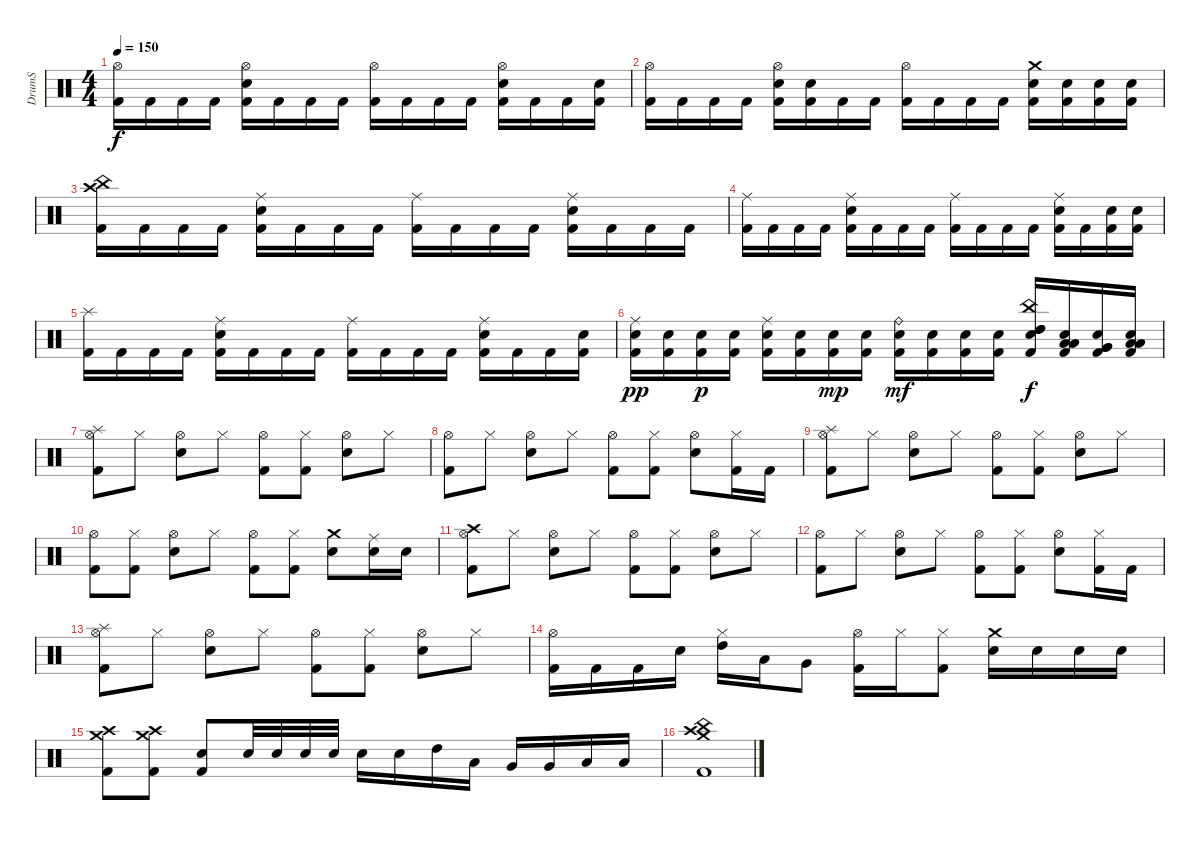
\track ("DrumS" "DrumS") {instrument percussion}
\staff {score}
\articulation defaults
\ts (4 4)
\tempo 150
\clef neutral
\ks c
("Hi-Hat (open)" "Kick (hit) 2").16{dy f} "Kick (hit) 2".16 "Kick (hit) 2".16 "Kick (hit) 2".16 ("Hi-Hat (open)" "Snare (hit) 2" "Kick (hit) 2").16 "Kick (hit) 2".16 "Kick (hit) 2".16 "Kick (hit) 2".16 ("Hi-Hat (open)" "Kick (hit) 2").16 "Kick (hit) 2".16 "Kick (hit) 2".16 "Kick (hit) 2".16 ("Hi-Hat (open)" "Snare (hit) 2" "Kick (hit) 2").16 "Kick (hit) 2".16 "Kick (hit) 2".16 ("Snare (hit) 2" "Kick (hit) 2").16 |
("Hi-Hat (open)" "Kick (hit) 2").16 "Kick (hit) 2".16 "Kick (hit) 2".16 "Kick (hit) 2".16 ("Hi-Hat (open)" "Snare (hit) 2" "Kick (hit) 2").16 ("Snare (hit) 2" "Kick (hit) 2").16 "Kick (hit) 2".16 "Kick (hit) 2".16 ("Hi-Hat (open)" "Kick (hit) 2").16 "Kick (hit) 2".16 "Kick (hit) 2".16 "Kick (hit) 2".16 ("Crash medium (hit)" "Snare (hit) 2" "Kick (hit) 2").16 ("Snare (hit) 2" "Kick (hit) 2").16 ("Snare (hit) 2" "Kick (hit) 2").16 ("Snare (hit) 2" "Kick (hit) 2").16 |
("Crash high (hit)" "China (hit)" "Kick (hit) 2").16 "Kick (hit) 2".16 "Kick (hit) 2".16 "Kick (hit) 2".16 ("Ride (middle)" "Snare (hit) 2" "Kick (hit) 2").16 "Kick (hit) 2".16 "Kick (hit) 2".16 "Kick (hit) 2".16 ("Ride (middle)" "Kick (hit) 2").16 "Kick (hit) 2".16 "Kick (hit) 2".16 "Kick (hit) 2".16 ("Ride (middle)" "Snare (hit) 2" "Kick (hit) 2").16 "Kick (hit) 2".16 "Kick (hit) 2".16 "Kick (hit) 2".16 |
("Ride (middle)" "Kick (hit) 2").16 "Kick (hit) 2".16 "Kick (hit) 2".16 "Kick (hit) 2".16 ("Ride (middle)" "Snare (hit) 2" "Kick (hit) 2").16 "Kick (hit) 2".16 "Kick (hit) 2".16 "Kick (hit) 2".16 ("Ride (middle)" "Kick (hit) 2").16 "Kick (hit) 2".16 "Kick (hit) 2".16 "Kick (hit) 2".16 ("Ride (middle)" "Snare (hit) 2" "Kick (hit) 2").16 "Kick (hit) 2".16 ("Snare (hit) 2" "Kick (hit) 2").16 ("Snare (hit) 2" "Kick (hit) 2").16 |
("Splash (hit)" "Kick (hit) 2").16 "Kick (hit) 2".16 "Kick (hit) 2".16 "Kick (hit) 2".16 ("Ride (middle)" "Snare (hit) 2" "Kick (hit) 2").16 "Kick (hit) 2".16 "Kick (hit) 2".16 "Kick (hit) 2".16 ("Ride (middle)" "Kick (hit) 2").16 "Kick (hit) 2".16 "Kick (hit) 2".16 "Kick (hit) 2".16 ("Ride (middle)" "Snare (hit) 2" "Kick (hit) 2").16 "Kick (hit) 2".16 "Kick (hit) 2".16 ("Snare (hit) 2" "Kick (hit) 2").16 |
("Ride (middle)" "Snare (hit) 2" "Kick (hit) 2").16{dy pp} ("Snare (hit) 2" "Kick (hit) 2").16 ("Snare (hit) 2" "Kick (hit) 2").16{dy p} ("Snare (hit) 2" "Kick (hit) 2").16 ("Ride (middle)" "Snare (hit) 2" "Kick (hit) 2").16 ("Snare (hit) 2" "Kick (hit) 2").16 ("Snare (hit) 2" "Kick (hit) 2").16{dy mp} ("Snare (hit) 2" "Kick (hit) 2").16 ("Ride (bell)" "Snare (hit) 2" "Kick (hit) 2").16{dy mf} ("Snare (hit) 2" "Kick (hit) 2").16 ("Snare (hit) 2" "Kick (hit) 2").16 ("Snare (hit) 2" "Kick (hit) 2").16 ("China (hit)" "High Tom (hit)" "High Tom (hit)" "Snare (hit) 2" "Kick (hit) 2").16{dy f} ("Low Tom (hit)" "Low Tom (hit)" "Snare (hit) 2" "Kick (hit) 2").16 ("Very Low Tom (hit)" "Very Low Tom (hit)" "Snare (hit) 2" "Kick (hit) 2").16 ("Low Floor Tom (hit)" "Low Floor Tom (hit)" "Snare (hit) 2" "Kick (hit) 2").16 |
("Splash (hit)" "Hi-Hat (open)" "Kick (hit) 2").8 "Hi-Hat (closed)".8 ("Hi-Hat (open)" "Snare (hit) 2").8 "Hi-Hat (closed)".8 ("Hi-Hat (open)" "Kick (hit) 2").8 ("Hi-Hat (closed)" "Kick (hit) 2").8 ("Hi-Hat (open)" "Snare (hit) 2").8 "Hi-Hat (closed)".8 |
("Hi-Hat (open)" "Kick (hit) 2").8 "Hi-Hat (closed)".8 ("Hi-Hat (open)" "Snare (hit) 2").8 "Hi-Hat (closed)".8 ("Hi-Hat (open)" "Kick (hit) 2").8 ("Hi-Hat (closed)" "Kick (hit) 2").8 ("Hi-Hat (open)" "Snare (hit) 2").8 ("Hi-Hat (closed)" "Kick (hit) 2").16 "Kick (hit) 2".16 |
("Splash (hit)" "Hi-Hat (open)" "Kick (hit) 2").8 "Hi-Hat (closed)".8 ("Hi-Hat (open)" "Snare (hit) 2").8 "Hi-Hat (closed)".8 ("Hi-Hat (open)" "Kick (hit) 2").8 ("Hi-Hat (closed)" "Kick (hit) 2").8 ("Hi-Hat (open)" "Snare (hit) 2").8 "Hi-Hat (closed)".8 |
("Hi-Hat (open)" "Kick (hit) 2").8 ("Hi-Hat (closed)" "Kick (hit) 2").8 ("Hi-Hat (open)" "Snare (hit) 2").8 "Hi-Hat (closed)".8 ("Hi-Hat (open)" "Kick (hit) 2").8 ("Hi-Hat (closed)" "Kick (hit) 2").8 ("Crash medium (hit)" "Snare (hit) 2").8 ("Ride (middle)" "Snare (hit) 2").16 "Snare (hit) 2".16 |
("Crash high (hit)" "Hi-Hat (open)" "Kick (hit) 2").8 "Hi-Hat (closed)".8 ("Hi-Hat (open)" "Snare (hit) 2").8 "Hi-Hat (closed)".8 ("Hi-Hat (open)" "Kick (hit) 2").8 ("Hi-Hat (closed)" "Kick (hit) 2").8 ("Hi-Hat (open)" "Snare (hit) 2").8 "Hi-Hat (closed)".8 |
("Hi-Hat (open)" "Kick (hit) 2").8 "Hi-Hat (closed)".8 ("Hi-Hat (open)" "Snare (hit) 2").8 "Hi-Hat (closed)".8 ("Hi-Hat (open)" "Kick (hit) 2").8 ("Hi-Hat (closed)" "Kick (hit) 2").8 ("Hi-Hat (open)" "Snare (hit) 2").8 ("Hi-Hat (closed)" "Kick (hit) 2").16 "Kick (hit) 2".16 |
("Splash (hit)" "Hi-Hat (open)" "Kick (hit) 2").8 "Hi-Hat (closed)".8 ("Hi-Hat (open)" "Snare (hit) 2").8 "Hi-Hat (closed)".8 ("Hi-Hat (open)" "Kick (hit) 2").8 ("Hi-Hat (closed)" "Kick (hit) 2").8 ("Hi-Hat (open)" "Snare (hit) 2").8 "Hi-Hat (closed)".8 |
("Hi-Hat (open)" "Kick (hit) 2").16 "Kick (hit) 2".16 "Kick (hit) 2".16 "Snare (hit) 2".16 ("High Tom (hit)" "Hi-Hat (closed)").16 "Low Tom (hit)".16 "Very Low Tom (hit)".8 ("Hi-Hat (open)" "Kick (hit) 2").16 "Hi-Hat (closed)".16 ("Hi-Hat (closed)" "Kick (hit) 2").8 ("Crash medium (hit)" "Snare (hit) 2").16 "Snare (hit) 2".16 "Snare (hit) 2".16 "Snare (hit) 2".16 |
("Crash high (hit)" "Crash medium (hit)" "Kick (hit) 2").8 ("Crash high (hit)" "Crash medium (hit)" "Kick (hit) 2").8 ("Snare (hit) 2" "Kick (hit) 2").8 "Snare (hit) 2".32 "Snare (hit) 2".32 "Snare (hit) 2".32 "Snare (hit) 2".32 "Snare (hit) 2".16 "Snare (hit) 2".16 "High Tom (hit)".16 "Low Tom (hit)".16 "Very Low Tom (hit)".16 "Very Low Tom (hit)".16 "Low Floor Tom (hit)".16 "Low Floor Tom (hit)".16 |
("Crash high (hit)" "Crash medium (hit)" "China (hit)" "Kick (hit) 2").1
